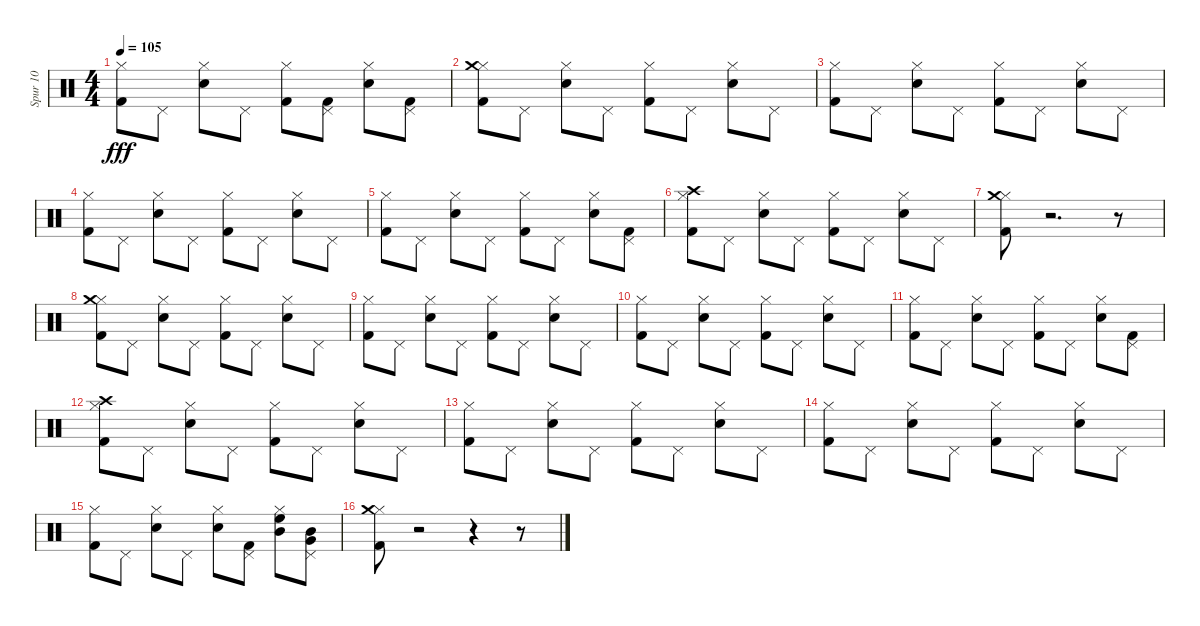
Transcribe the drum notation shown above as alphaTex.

\track ("Spur 10" "Spur 10") {instrument percussion}
\staff {score}
\articulation defaults
\ts (4 4)
\tempo 105
\clef neutral
\ks c
("Kick (hit) 2" "Hi-Hat (closed)").8{dy fff} "Pedal Hi-Hat (hit)".8 ("Electric Snare (hit)" "Hi-Hat (closed)").8 "Pedal Hi-Hat (hit)".8 ("Hi-Hat (closed)" "Kick (hit) 2").8 ("Kick (hit) 2" "Pedal Hi-Hat (hit)").8 ("Electric Snare (hit)" "Hi-Hat (closed)").8 ("Pedal Hi-Hat (hit)" "Kick (hit) 2").8 |
("Hi-Hat (closed)" "Crash medium (hit)" "Kick (hit) 2").8 "Pedal Hi-Hat (hit)".8 ("Hi-Hat (closed)" "Electric Snare (hit)").8 "Pedal Hi-Hat (hit)".8 ("Hi-Hat (closed)" "Kick (hit) 2").8 "Pedal Hi-Hat (hit)".8 ("Electric Snare (hit)" "Hi-Hat (closed)").8 "Pedal Hi-Hat (hit)".8 |
("Kick (hit) 2" "Hi-Hat (closed)").8 "Pedal Hi-Hat (hit)".8 ("Electric Snare (hit)" "Hi-Hat (closed)").8 "Pedal Hi-Hat (hit)".8 ("Hi-Hat (closed)" "Kick (hit) 2").8 "Pedal Hi-Hat (hit)".8 ("Electric Snare (hit)" "Hi-Hat (closed)").8 "Pedal Hi-Hat (hit)".8 |
("Kick (hit) 2" "Hi-Hat (closed)").8 "Pedal Hi-Hat (hit)".8 ("Electric Snare (hit)" "Hi-Hat (closed)").8 "Pedal Hi-Hat (hit)".8 ("Kick (hit) 2" "Hi-Hat (closed)").8 "Pedal Hi-Hat (hit)".8 ("Electric Snare (hit)" "Hi-Hat (closed)").8 "Pedal Hi-Hat (hit)".8 |
("Kick (hit) 2" "Hi-Hat (closed)").8 "Pedal Hi-Hat (hit)".8 ("Electric Snare (hit)" "Hi-Hat (closed)").8 "Pedal Hi-Hat (hit)".8 ("Hi-Hat (closed)" "Kick (hit) 2").8 "Pedal Hi-Hat (hit)".8 ("Electric Snare (hit)" "Hi-Hat (closed)").8 ("Pedal Hi-Hat (hit)" "Kick (hit) 2").8 |
("Hi-Hat (closed)" "Crash high (hit)" "Kick (hit) 2").8 "Pedal Hi-Hat (hit)".8 ("Hi-Hat (closed)" "Electric Snare (hit)").8 "Pedal Hi-Hat (hit)".8 ("Hi-Hat (closed)" "Kick (hit) 2").8 "Pedal Hi-Hat (hit)".8 ("Electric Snare (hit)" "Hi-Hat (closed)").8 "Pedal Hi-Hat (hit)".8 |
("Kick (hit) 2" "Hi-Hat (closed)" "Crash medium (hit)").8 r.2{d} r.8 |
("Hi-Hat (closed)" "Crash medium (hit)" "Kick (hit) 2").8 "Pedal Hi-Hat (hit)".8 ("Hi-Hat (closed)" "Electric Snare (hit)").8 "Pedal Hi-Hat (hit)".8 ("Hi-Hat (closed)" "Kick (hit) 2").8 "Pedal Hi-Hat (hit)".8 ("Electric Snare (hit)" "Hi-Hat (closed)").8 "Pedal Hi-Hat (hit)".8 |
("Kick (hit) 2" "Hi-Hat (closed)").8 "Pedal Hi-Hat (hit)".8 ("Electric Snare (hit)" "Hi-Hat (closed)").8 "Pedal Hi-Hat (hit)".8 ("Hi-Hat (closed)" "Kick (hit) 2").8 "Pedal Hi-Hat (hit)".8 ("Electric Snare (hit)" "Hi-Hat (closed)").8 "Pedal Hi-Hat (hit)".8 |
("Kick (hit) 2" "Hi-Hat (closed)").8 "Pedal Hi-Hat (hit)".8 ("Electric Snare (hit)" "Hi-Hat (closed)").8 "Pedal Hi-Hat (hit)".8 ("Kick (hit) 2" "Hi-Hat (closed)").8 "Pedal Hi-Hat (hit)".8 ("Electric Snare (hit)" "Hi-Hat (closed)").8 "Pedal Hi-Hat (hit)".8 |
("Kick (hit) 2" "Hi-Hat (closed)").8 "Pedal Hi-Hat (hit)".8 ("Electric Snare (hit)" "Hi-Hat (closed)").8 "Pedal Hi-Hat (hit)".8 ("Hi-Hat (closed)" "Kick (hit) 2").8 "Pedal Hi-Hat (hit)".8 ("Electric Snare (hit)" "Hi-Hat (closed)").8 ("Pedal Hi-Hat (hit)" "Kick (hit) 2").8 |
("Hi-Hat (closed)" "Crash high (hit)" "Kick (hit) 2").8 "Pedal Hi-Hat (hit)".8 ("Hi-Hat (closed)" "Electric Snare (hit)").8 "Pedal Hi-Hat (hit)".8 ("Hi-Hat (closed)" "Kick (hit) 2").8 "Pedal Hi-Hat (hit)".8 ("Electric Snare (hit)" "Hi-Hat (closed)").8 "Pedal Hi-Hat (hit)".8 |
("Kick (hit) 2" "Hi-Hat (closed)").8 "Pedal Hi-Hat (hit)".8 ("Electric Snare (hit)" "Hi-Hat (closed)").8 "Pedal Hi-Hat (hit)".8 ("Hi-Hat (closed)" "Kick (hit) 2").8 "Pedal Hi-Hat (hit)".8 ("Electric Snare (hit)" "Hi-Hat (closed)").8 "Pedal Hi-Hat (hit)".8 |
("Kick (hit) 2" "Hi-Hat (closed)").8 "Pedal Hi-Hat (hit)".8 ("Electric Snare (hit)" "Hi-Hat (closed)").8 "Pedal Hi-Hat (hit)".8 ("Kick (hit) 2" "Hi-Hat (closed)").8 "Pedal Hi-Hat (hit)".8 ("Electric Snare (hit)" "Hi-Hat (closed)").8 "Pedal Hi-Hat (hit)".8 |
("Kick (hit) 2" "Hi-Hat (closed)").8 "Pedal Hi-Hat (hit)".8 ("Electric Snare (hit)" "Hi-Hat (closed)").8 "Pedal Hi-Hat (hit)".8 ("Electric Snare (hit)" "Hi-Hat (closed)").8 ("Kick (hit) 2" "Pedal Hi-Hat (hit)").8 ("High Floor Tom (hit)" "Hi-Hat (closed)" "Mid Tom (hit)").8 ("Mid Tom (hit)" "Pedal Hi-Hat (hit)" "Very Low Tom (hit)").8 |
("Hi-Hat (closed)" "Crash medium (hit)" "Kick (hit) 2").8 r.2 r.4 r.8
